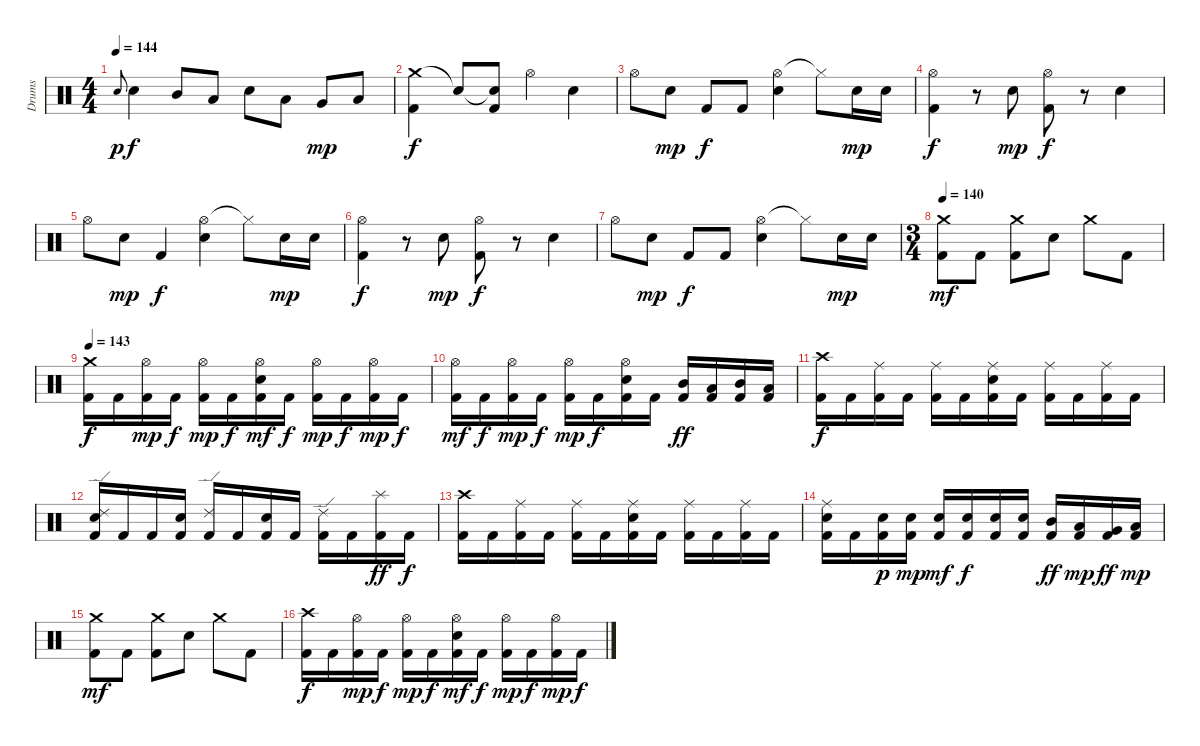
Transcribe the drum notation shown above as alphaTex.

\track ("Drums" "Drums") {instrument percussion}
\staff {score}
\articulation defaults
\ts (4 4)
\tempo 144
\clef neutral
\ks c "Electric Snare (hit)".8{gr onbeat dy p} "Electric Snare (hit)".4{dy f} "Mid Tom (hit)".8 "Low Tom (hit)".8 "Electric Snare (hit)".8 "Low Tom (hit)".8 "Very Low Tom (hit)".8{dy mp} "Low Floor Tom (hit)".8
|
("Crash medium (hit)" "Kick (hit) 2").4{dy f} "Snare (hit)"{t}.8 ("Snare (hit)"{t} "Kick (hit) 2").8 "Hi-Hat (open)".4 "Electric Snare (hit)".4 |
"Hi-Hat (open)".8 "Electric Snare (hit)".8{dy mp} "Kick (hit) 2".8{dy f} "Kick (hit) 2".8 ("Hi-Hat (open)" "Electric Snare (hit)").4 "Hi-Hat (closed)"{t}.8 "Electric Snare (hit)".16{dy mp} "Electric Snare (hit)".16 |
("Hi-Hat (open)" "Kick (hit) 2").4{dy f} r.8 "Electric Snare (hit)".8{dy mp} ("Hi-Hat (open)" "Kick (hit) 2").8{dy f} r.8 "Electric Snare (hit)".4 |
"Hi-Hat (open)".8 "Electric Snare (hit)".8{dy mp} "Kick (hit) 2".4{dy f} ("Hi-Hat (open)" "Electric Snare (hit)").4 "Hi-Hat (closed)"{t}.8 "Electric Snare (hit)".16{dy mp} "Electric Snare (hit)".16 |
("Hi-Hat (open)" "Kick (hit) 2").4{dy f} r.8 "Electric Snare (hit)".8{dy mp} ("Hi-Hat (open)" "Kick (hit) 2").8{dy f} r.8 "Electric Snare (hit)".4 |
"Hi-Hat (open)".8 "Electric Snare (hit)".8{dy mp} "Kick (hit) 2".8{dy f} "Kick (hit) 2".8 ("Hi-Hat (open)" "Electric Snare (hit)").4 "Hi-Hat (closed)"{t}.8 "Electric Snare (hit)".16{dy mp} "Electric Snare (hit)".16 |
\ts (3 4)
\tempo 140
("Crash medium (hit)" "Kick (hit) 2").8{dy mf} "Kick (hit) 2".8 ("Crash medium (hit)" "Kick (hit) 2").8 "Electric Snare (hit)".8 "Crash medium (hit)".8 "Kick (hit) 2".8 |
\tempo 143
("Crash medium (hit)" "Kick (hit) 2").16{dy f} "Kick (hit) 2".16 ("Hi-Hat (open)" "Kick (hit) 2").16{dy mp} "Kick (hit) 2".16{dy f} ("Hi-Hat (open)" "Kick (hit) 2").16{dy mp} "Kick (hit) 2".16{dy f} ("Hi-Hat (open)" "Electric Snare (hit)" "Kick (hit) 2").16{dy mf} "Kick (hit) 2".16{dy f} ("Hi-Hat (open)" "Kick (hit) 2").16{dy mp} "Kick (hit) 2".16{dy f} ("Hi-Hat (open)" "Kick (hit) 2").16{dy mp} "Kick (hit) 2".16{dy f} |
("Hi-Hat (open)" "Kick (hit) 2").16{dy mf} "Kick (hit) 2".16{dy f} ("Hi-Hat (open)" "Kick (hit) 2").16{dy mp} "Kick (hit) 2".16{dy f} ("Hi-Hat (open)" "Kick (hit) 2").16{dy mp} "Kick (hit) 2".16{dy f} ("Hi-Hat (open)" "Electric Snare (hit)" "Kick (hit) 2").16 "Kick (hit) 2".16 ("Mid Tom (hit)" "Kick (hit) 2").16{dy ff} ("Low Tom (hit)" "Kick (hit) 2").16 ("Mid Tom (hit)" "Kick (hit) 2").16 ("Low Tom (hit)" "Kick (hit) 2").16 |
("Crash high (hit)" "Kick (hit) 2").16{dy f} "Kick (hit) 2".16 ("Ride (middle)" "Kick (hit) 2").16 "Kick (hit) 2".16 ("Ride (middle)" "Kick (hit) 2").16 "Kick (hit) 2".16 ("Ride (middle)" "Electric Snare (hit)" "Kick (hit) 2").16 "Kick (hit) 2".16 ("Ride (middle)" "Kick (hit) 2").16 "Kick (hit) 2".16 ("Ride (middle)" "Kick (hit) 2").16 "Kick (hit) 2".16 |
("Ride (edge) 2" "Electric Snare (hit)" "Kick (hit) 2").16 "Kick (hit) 2".16 "Kick (hit) 2".16 ("Electric Snare (hit)" "Kick (hit) 2").16 ("Ride (edge) 2" "Kick (hit) 2").16 "Kick (hit) 2".16 ("Electric Snare (hit)" "Kick (hit) 2").16 "Kick (hit) 2".16 ("Ride (edge) 2" "Kick (hit) 2").16 "Kick (hit) 2".16 ("Splash (hit)" "Kick (hit) 2").16{dy ff} "Kick (hit) 2".16{dy f} |
("Crash high (hit)" "Kick (hit) 2").16 "Kick (hit) 2".16 ("Ride (middle)" "Kick (hit) 2").16 "Kick (hit) 2".16 ("Ride (middle)" "Kick (hit) 2").16 "Kick (hit) 2".16 ("Ride (middle)" "Electric Snare (hit)" "Kick (hit) 2").16 "Kick (hit) 2".16 ("Ride (middle)" "Kick (hit) 2").16 "Kick (hit) 2".16 ("Ride (middle)" "Kick (hit) 2").16 "Kick (hit) 2".16 |
("Ride (middle)" "Electric Snare (hit)" "Kick (hit) 2").16 "Kick (hit) 2".16 ("Electric Snare (hit)" "Kick (hit) 2").16{dy p} ("Electric Snare (hit)" "Kick (hit) 2").16{dy mp} ("Electric Snare (hit)" "Kick (hit) 2").16{dy mf} ("Electric Snare (hit)" "Kick (hit) 2").16{dy f} ("Electric Snare (hit)" "Kick (hit) 2").16 ("Electric Snare (hit)" "Kick (hit) 2").16 ("Mid Tom (hit)" "Kick (hit) 2").16{dy ff} ("Low Tom (hit)" "Kick (hit) 2").16{dy mp} ("Very Low Tom (hit)" "Kick (hit) 2").16{dy ff} ("Low Floor Tom (hit)" "Kick (hit) 2").16{dy mp} |
("Crash medium (hit)" "Kick (hit) 2").8{dy mf} "Kick (hit) 2".8 ("Crash medium (hit)" "Kick (hit) 2").8 "Electric Snare (hit)".8 "Crash medium (hit)".8 "Kick (hit) 2".8 |
("Crash high (hit)" "Kick (hit) 2").16{dy f} "Kick (hit) 2".16 ("Hi-Hat (open)" "Kick (hit) 2").16{dy mp} "Kick (hit) 2".16{dy f} ("Hi-Hat (open)" "Kick (hit) 2").16{dy mp} "Kick (hit) 2".16{dy f} ("Hi-Hat (open)" "Electric Snare (hit)" "Kick (hit) 2").16{dy mf} "Kick (hit) 2".16{dy f} ("Hi-Hat (open)" "Kick (hit) 2").16{dy mp} "Kick (hit) 2".16{dy f} ("Hi-Hat (open)" "Kick (hit) 2").16{dy mp} "Kick (hit) 2".16{dy f}
